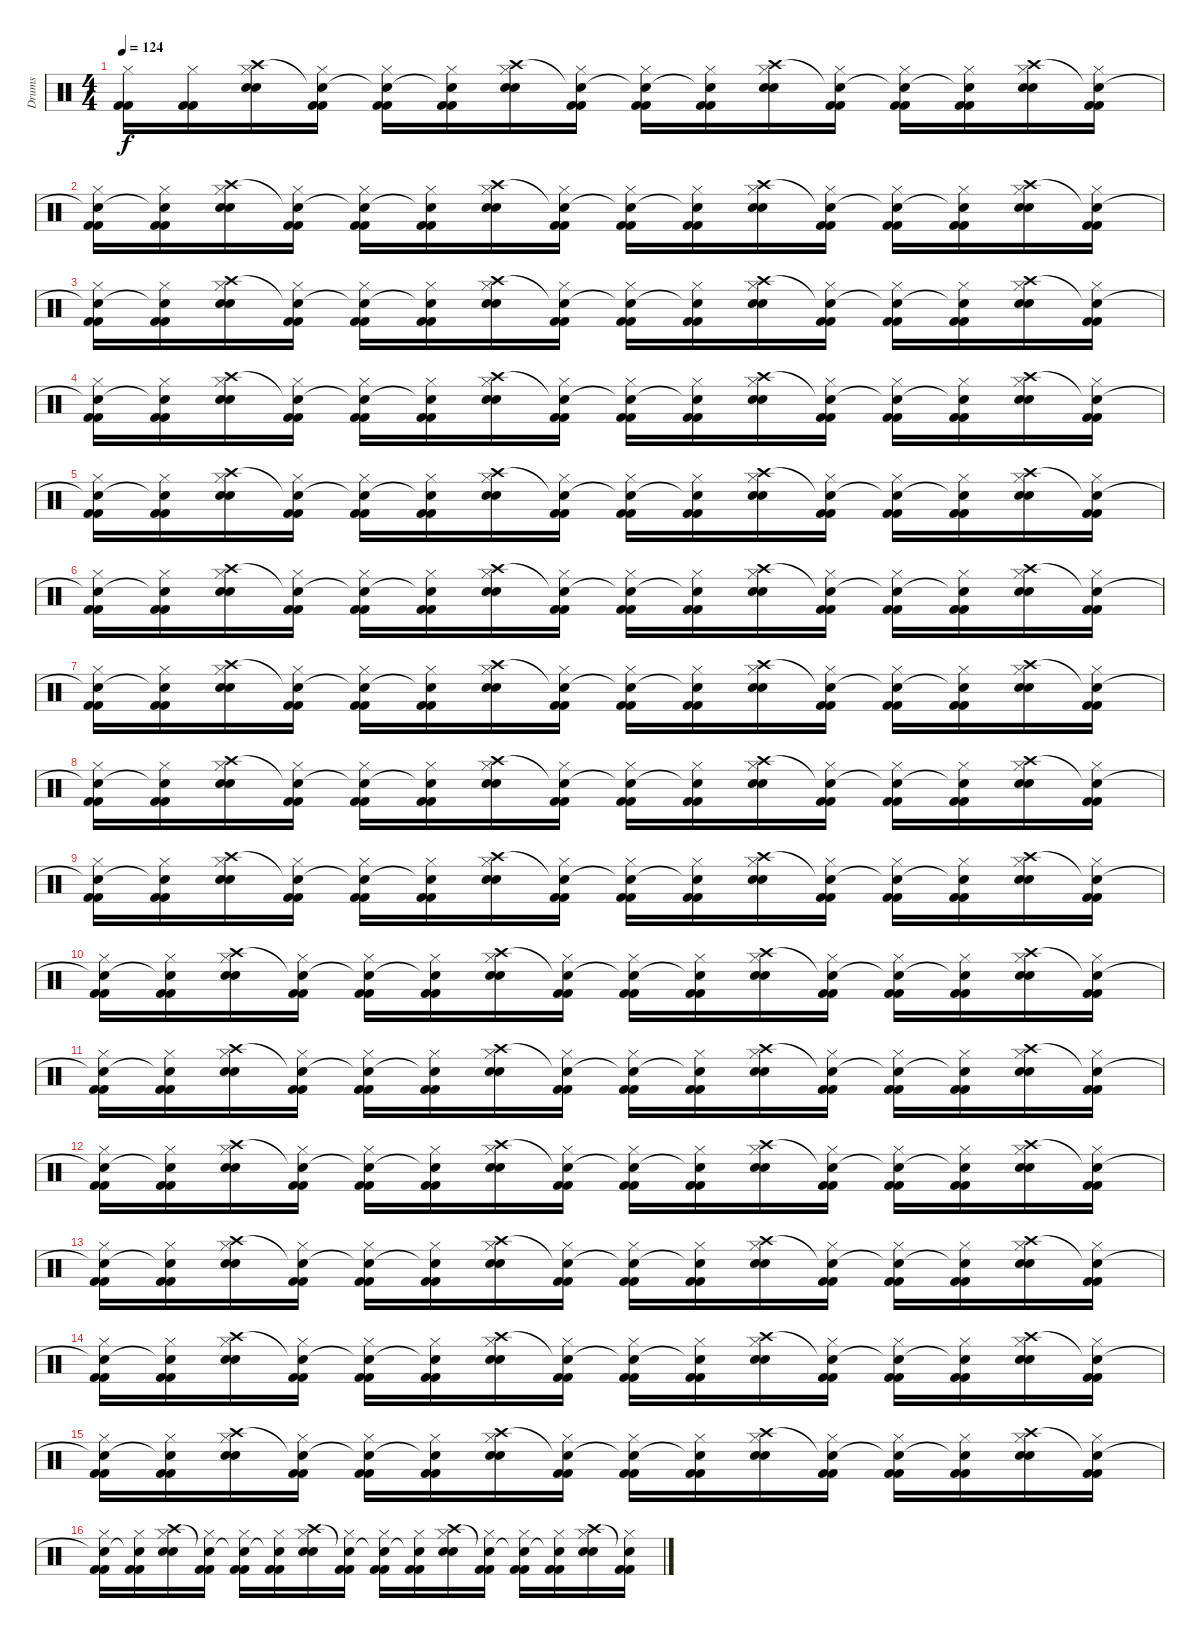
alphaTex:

\track ("Drums" "Drums") {instrument percussion}
\staff {score}
\articulation defaults
\ts (4 4)
\tempo 124
\clef neutral
\ks c
("Hi-Hat (closed)" "Kick (hit) 2" "Kick (hit) 2").16{dy f} ("Hi-Hat (closed)" "Kick (hit) 2" "Kick (hit) 2").16 ("Crash high (hit)" "Hi-Hat (closed)" "Snare (hit) 2" "Snare (hit) 2").16 ("Snare (hit)"{t} "Hi-Hat (closed)" "Kick (hit) 2" "Kick (hit) 2").16 ("Snare (hit)"{t} "Hi-Hat (closed)" "Kick (hit) 2" "Kick (hit) 2").16 ("Snare (hit)"{t} "Hi-Hat (closed)" "Kick (hit) 2" "Kick (hit) 2").16 ("Crash high (hit)" "Hi-Hat (closed)" "Snare (hit) 2" "Snare (hit) 2").16 ("Snare (hit)"{t} "Hi-Hat (closed)" "Kick (hit) 2" "Kick (hit) 2").16 ("Snare (hit)"{t} "Hi-Hat (closed)" "Kick (hit) 2" "Kick (hit) 2").16 ("Snare (hit)"{t} "Hi-Hat (closed)" "Kick (hit) 2" "Kick (hit) 2").16 ("Crash high (hit)" "Hi-Hat (closed)" "Snare (hit) 2" "Snare (hit) 2").16 ("Snare (hit)"{t} "Hi-Hat (closed)" "Kick (hit) 2" "Kick (hit) 2").16 ("Snare (hit)"{t} "Hi-Hat (closed)" "Kick (hit) 2" "Kick (hit) 2").16 ("Snare (hit)"{t} "Hi-Hat (closed)" "Kick (hit) 2" "Kick (hit) 2").16 ("Crash high (hit)" "Hi-Hat (closed)" "Snare (hit) 2" "Snare (hit) 2").16 ("Snare (hit)"{t} "Hi-Hat (closed)" "Kick (hit) 2" "Kick (hit) 2").16 |
("Snare (hit)"{t} "Hi-Hat (closed)" "Kick (hit) 2" "Kick (hit) 2").16 ("Snare (hit)"{t} "Hi-Hat (closed)" "Kick (hit) 2" "Kick (hit) 2").16 ("Crash high (hit)" "Hi-Hat (closed)" "Snare (hit) 2" "Snare (hit) 2").16 ("Snare (hit)"{t} "Hi-Hat (closed)" "Kick (hit) 2" "Kick (hit) 2").16 ("Snare (hit)"{t} "Hi-Hat (closed)" "Kick (hit) 2" "Kick (hit) 2").16 ("Snare (hit)"{t} "Hi-Hat (closed)" "Kick (hit) 2" "Kick (hit) 2").16 ("Crash high (hit)" "Hi-Hat (closed)" "Snare (hit) 2" "Snare (hit) 2").16 ("Snare (hit)"{t} "Hi-Hat (closed)" "Kick (hit) 2" "Kick (hit) 2").16 ("Snare (hit)"{t} "Hi-Hat (closed)" "Kick (hit) 2" "Kick (hit) 2").16 ("Snare (hit)"{t} "Hi-Hat (closed)" "Kick (hit) 2" "Kick (hit) 2").16 ("Crash high (hit)" "Hi-Hat (closed)" "Snare (hit) 2" "Snare (hit) 2").16 ("Snare (hit)"{t} "Hi-Hat (closed)" "Kick (hit) 2" "Kick (hit) 2").16 ("Snare (hit)"{t} "Hi-Hat (closed)" "Kick (hit) 2" "Kick (hit) 2").16 ("Snare (hit)"{t} "Hi-Hat (closed)" "Kick (hit) 2" "Kick (hit) 2").16 ("Crash high (hit)" "Hi-Hat (closed)" "Snare (hit) 2" "Snare (hit) 2").16 ("Snare (hit)"{t} "Hi-Hat (closed)" "Kick (hit) 2" "Kick (hit) 2").16 |
("Snare (hit)"{t} "Hi-Hat (closed)" "Kick (hit) 2" "Kick (hit) 2").16 ("Snare (hit)"{t} "Hi-Hat (closed)" "Kick (hit) 2" "Kick (hit) 2").16 ("Crash high (hit)" "Hi-Hat (closed)" "Snare (hit) 2" "Snare (hit) 2").16 ("Snare (hit)"{t} "Hi-Hat (closed)" "Kick (hit) 2" "Kick (hit) 2").16 ("Snare (hit)"{t} "Hi-Hat (closed)" "Kick (hit) 2" "Kick (hit) 2").16 ("Snare (hit)"{t} "Hi-Hat (closed)" "Kick (hit) 2" "Kick (hit) 2").16 ("Crash high (hit)" "Hi-Hat (closed)" "Snare (hit) 2" "Snare (hit) 2").16 ("Snare (hit)"{t} "Hi-Hat (closed)" "Kick (hit) 2" "Kick (hit) 2").16 ("Snare (hit)"{t} "Hi-Hat (closed)" "Kick (hit) 2" "Kick (hit) 2").16 ("Snare (hit)"{t} "Hi-Hat (closed)" "Kick (hit) 2" "Kick (hit) 2").16 ("Crash high (hit)" "Hi-Hat (closed)" "Snare (hit) 2" "Snare (hit) 2").16 ("Snare (hit)"{t} "Hi-Hat (closed)" "Kick (hit) 2" "Kick (hit) 2").16 ("Snare (hit)"{t} "Hi-Hat (closed)" "Kick (hit) 2" "Kick (hit) 2").16 ("Snare (hit)"{t} "Hi-Hat (closed)" "Kick (hit) 2" "Kick (hit) 2").16 ("Crash high (hit)" "Hi-Hat (closed)" "Snare (hit) 2" "Snare (hit) 2").16 ("Snare (hit)"{t} "Hi-Hat (closed)" "Kick (hit) 2" "Kick (hit) 2").16 |
("Snare (hit)"{t} "Hi-Hat (closed)" "Kick (hit) 2" "Kick (hit) 2").16 ("Snare (hit)"{t} "Hi-Hat (closed)" "Kick (hit) 2" "Kick (hit) 2").16 ("Crash high (hit)" "Hi-Hat (closed)" "Snare (hit) 2" "Snare (hit) 2").16 ("Snare (hit)"{t} "Hi-Hat (closed)" "Kick (hit) 2" "Kick (hit) 2").16 ("Snare (hit)"{t} "Hi-Hat (closed)" "Kick (hit) 2" "Kick (hit) 2").16 ("Snare (hit)"{t} "Hi-Hat (closed)" "Kick (hit) 2" "Kick (hit) 2").16 ("Crash high (hit)" "Hi-Hat (closed)" "Snare (hit) 2" "Snare (hit) 2").16 ("Snare (hit)"{t} "Hi-Hat (closed)" "Kick (hit) 2" "Kick (hit) 2").16 ("Snare (hit)"{t} "Hi-Hat (closed)" "Kick (hit) 2" "Kick (hit) 2").16 ("Snare (hit)"{t} "Hi-Hat (closed)" "Kick (hit) 2" "Kick (hit) 2").16 ("Crash high (hit)" "Hi-Hat (closed)" "Snare (hit) 2" "Snare (hit) 2").16 ("Snare (hit)"{t} "Hi-Hat (closed)" "Kick (hit) 2" "Kick (hit) 2").16 ("Snare (hit)"{t} "Hi-Hat (closed)" "Kick (hit) 2" "Kick (hit) 2").16 ("Snare (hit)"{t} "Hi-Hat (closed)" "Kick (hit) 2" "Kick (hit) 2").16 ("Crash high (hit)" "Hi-Hat (closed)" "Snare (hit) 2" "Snare (hit) 2").16 ("Snare (hit)"{t} "Hi-Hat (closed)" "Kick (hit) 2" "Kick (hit) 2").16 |
("Snare (hit)"{t} "Hi-Hat (closed)" "Kick (hit) 2" "Kick (hit) 2").16 ("Snare (hit)"{t} "Hi-Hat (closed)" "Kick (hit) 2" "Kick (hit) 2").16 ("Crash high (hit)" "Hi-Hat (closed)" "Snare (hit) 2" "Snare (hit) 2").16 ("Snare (hit)"{t} "Hi-Hat (closed)" "Kick (hit) 2" "Kick (hit) 2").16 ("Snare (hit)"{t} "Hi-Hat (closed)" "Kick (hit) 2" "Kick (hit) 2").16 ("Snare (hit)"{t} "Hi-Hat (closed)" "Kick (hit) 2" "Kick (hit) 2").16 ("Crash high (hit)" "Hi-Hat (closed)" "Snare (hit) 2" "Snare (hit) 2").16 ("Snare (hit)"{t} "Hi-Hat (closed)" "Kick (hit) 2" "Kick (hit) 2").16 ("Snare (hit)"{t} "Hi-Hat (closed)" "Kick (hit) 2" "Kick (hit) 2").16 ("Snare (hit)"{t} "Hi-Hat (closed)" "Kick (hit) 2" "Kick (hit) 2").16 ("Crash high (hit)" "Hi-Hat (closed)" "Snare (hit) 2" "Snare (hit) 2").16 ("Snare (hit)"{t} "Hi-Hat (closed)" "Kick (hit) 2" "Kick (hit) 2").16 ("Snare (hit)"{t} "Hi-Hat (closed)" "Kick (hit) 2" "Kick (hit) 2").16 ("Snare (hit)"{t} "Hi-Hat (closed)" "Kick (hit) 2" "Kick (hit) 2").16 ("Crash high (hit)" "Hi-Hat (closed)" "Snare (hit) 2" "Snare (hit) 2").16 ("Snare (hit)"{t} "Hi-Hat (closed)" "Kick (hit) 2" "Kick (hit) 2").16 |
("Snare (hit)"{t} "Hi-Hat (closed)" "Kick (hit) 2" "Kick (hit) 2").16 ("Snare (hit)"{t} "Hi-Hat (closed)" "Kick (hit) 2" "Kick (hit) 2").16 ("Crash high (hit)" "Hi-Hat (closed)" "Snare (hit) 2" "Snare (hit) 2").16 ("Snare (hit)"{t} "Hi-Hat (closed)" "Kick (hit) 2" "Kick (hit) 2").16 ("Snare (hit)"{t} "Hi-Hat (closed)" "Kick (hit) 2" "Kick (hit) 2").16 ("Snare (hit)"{t} "Hi-Hat (closed)" "Kick (hit) 2" "Kick (hit) 2").16 ("Crash high (hit)" "Hi-Hat (closed)" "Snare (hit) 2" "Snare (hit) 2").16 ("Snare (hit)"{t} "Hi-Hat (closed)" "Kick (hit) 2" "Kick (hit) 2").16 ("Snare (hit)"{t} "Hi-Hat (closed)" "Kick (hit) 2" "Kick (hit) 2").16 ("Snare (hit)"{t} "Hi-Hat (closed)" "Kick (hit) 2" "Kick (hit) 2").16 ("Crash high (hit)" "Hi-Hat (closed)" "Snare (hit) 2" "Snare (hit) 2").16 ("Snare (hit)"{t} "Hi-Hat (closed)" "Kick (hit) 2" "Kick (hit) 2").16 ("Snare (hit)"{t} "Hi-Hat (closed)" "Kick (hit) 2" "Kick (hit) 2").16 ("Snare (hit)"{t} "Hi-Hat (closed)" "Kick (hit) 2" "Kick (hit) 2").16 ("Crash high (hit)" "Hi-Hat (closed)" "Snare (hit) 2" "Snare (hit) 2").16 ("Snare (hit)"{t} "Hi-Hat (closed)" "Kick (hit) 2" "Kick (hit) 2").16 |
("Snare (hit)"{t} "Hi-Hat (closed)" "Kick (hit) 2" "Kick (hit) 2").16 ("Snare (hit)"{t} "Hi-Hat (closed)" "Kick (hit) 2" "Kick (hit) 2").16 ("Crash high (hit)" "Hi-Hat (closed)" "Snare (hit) 2" "Snare (hit) 2").16 ("Snare (hit)"{t} "Hi-Hat (closed)" "Kick (hit) 2" "Kick (hit) 2").16 ("Snare (hit)"{t} "Hi-Hat (closed)" "Kick (hit) 2" "Kick (hit) 2").16 ("Snare (hit)"{t} "Hi-Hat (closed)" "Kick (hit) 2" "Kick (hit) 2").16 ("Crash high (hit)" "Hi-Hat (closed)" "Snare (hit) 2" "Snare (hit) 2").16 ("Snare (hit)"{t} "Hi-Hat (closed)" "Kick (hit) 2" "Kick (hit) 2").16 ("Snare (hit)"{t} "Hi-Hat (closed)" "Kick (hit) 2" "Kick (hit) 2").16 ("Snare (hit)"{t} "Hi-Hat (closed)" "Kick (hit) 2" "Kick (hit) 2").16 ("Crash high (hit)" "Hi-Hat (closed)" "Snare (hit) 2" "Snare (hit) 2").16 ("Snare (hit)"{t} "Hi-Hat (closed)" "Kick (hit) 2" "Kick (hit) 2").16 ("Snare (hit)"{t} "Hi-Hat (closed)" "Kick (hit) 2" "Kick (hit) 2").16 ("Snare (hit)"{t} "Hi-Hat (closed)" "Kick (hit) 2" "Kick (hit) 2").16 ("Crash high (hit)" "Hi-Hat (closed)" "Snare (hit) 2" "Snare (hit) 2").16 ("Snare (hit)"{t} "Hi-Hat (closed)" "Kick (hit) 2" "Kick (hit) 2").16 |
("Snare (hit)"{t} "Hi-Hat (closed)" "Kick (hit) 2" "Kick (hit) 2").16 ("Snare (hit)"{t} "Hi-Hat (closed)" "Kick (hit) 2" "Kick (hit) 2").16 ("Crash high (hit)" "Hi-Hat (closed)" "Snare (hit) 2" "Snare (hit) 2").16 ("Snare (hit)"{t} "Hi-Hat (closed)" "Kick (hit) 2" "Kick (hit) 2").16 ("Snare (hit)"{t} "Hi-Hat (closed)" "Kick (hit) 2" "Kick (hit) 2").16 ("Snare (hit)"{t} "Hi-Hat (closed)" "Kick (hit) 2" "Kick (hit) 2").16 ("Crash high (hit)" "Hi-Hat (closed)" "Snare (hit) 2" "Snare (hit) 2").16 ("Snare (hit)"{t} "Hi-Hat (closed)" "Kick (hit) 2" "Kick (hit) 2").16 ("Snare (hit)"{t} "Hi-Hat (closed)" "Kick (hit) 2" "Kick (hit) 2").16 ("Snare (hit)"{t} "Hi-Hat (closed)" "Kick (hit) 2" "Kick (hit) 2").16 ("Crash high (hit)" "Hi-Hat (closed)" "Snare (hit) 2" "Snare (hit) 2").16 ("Snare (hit)"{t} "Hi-Hat (closed)" "Kick (hit) 2" "Kick (hit) 2").16 ("Snare (hit)"{t} "Hi-Hat (closed)" "Kick (hit) 2" "Kick (hit) 2").16 ("Snare (hit)"{t} "Hi-Hat (closed)" "Kick (hit) 2" "Kick (hit) 2").16 ("Crash high (hit)" "Hi-Hat (closed)" "Snare (hit) 2" "Snare (hit) 2").16 ("Snare (hit)"{t} "Hi-Hat (closed)" "Kick (hit) 2" "Kick (hit) 2").16 |
("Snare (hit)"{t} "Hi-Hat (closed)" "Kick (hit) 2" "Kick (hit) 2").16 ("Snare (hit)"{t} "Hi-Hat (closed)" "Kick (hit) 2" "Kick (hit) 2").16 ("Crash high (hit)" "Hi-Hat (closed)" "Snare (hit) 2" "Snare (hit) 2").16 ("Snare (hit)"{t} "Hi-Hat (closed)" "Kick (hit) 2" "Kick (hit) 2").16 ("Snare (hit)"{t} "Hi-Hat (closed)" "Kick (hit) 2" "Kick (hit) 2").16 ("Snare (hit)"{t} "Hi-Hat (closed)" "Kick (hit) 2" "Kick (hit) 2").16 ("Crash high (hit)" "Hi-Hat (closed)" "Snare (hit) 2" "Snare (hit) 2").16 ("Snare (hit)"{t} "Hi-Hat (closed)" "Kick (hit) 2" "Kick (hit) 2").16 ("Snare (hit)"{t} "Hi-Hat (closed)" "Kick (hit) 2" "Kick (hit) 2").16 ("Snare (hit)"{t} "Hi-Hat (closed)" "Kick (hit) 2" "Kick (hit) 2").16 ("Crash high (hit)" "Hi-Hat (closed)" "Snare (hit) 2" "Snare (hit) 2").16 ("Snare (hit)"{t} "Hi-Hat (closed)" "Kick (hit) 2" "Kick (hit) 2").16 ("Snare (hit)"{t} "Hi-Hat (closed)" "Kick (hit) 2" "Kick (hit) 2").16 ("Snare (hit)"{t} "Hi-Hat (closed)" "Kick (hit) 2" "Kick (hit) 2").16 ("Crash high (hit)" "Hi-Hat (closed)" "Snare (hit) 2" "Snare (hit) 2").16 ("Snare (hit)"{t} "Hi-Hat (closed)" "Kick (hit) 2" "Kick (hit) 2").16 |
("Snare (hit)"{t} "Hi-Hat (closed)" "Kick (hit) 2" "Kick (hit) 2").16 ("Snare (hit)"{t} "Hi-Hat (closed)" "Kick (hit) 2" "Kick (hit) 2").16 ("Crash high (hit)" "Hi-Hat (closed)" "Snare (hit) 2" "Snare (hit) 2").16 ("Snare (hit)"{t} "Hi-Hat (closed)" "Kick (hit) 2" "Kick (hit) 2").16 ("Snare (hit)"{t} "Hi-Hat (closed)" "Kick (hit) 2" "Kick (hit) 2").16 ("Snare (hit)"{t} "Hi-Hat (closed)" "Kick (hit) 2" "Kick (hit) 2").16 ("Crash high (hit)" "Hi-Hat (closed)" "Snare (hit) 2" "Snare (hit) 2").16 ("Snare (hit)"{t} "Hi-Hat (closed)" "Kick (hit) 2" "Kick (hit) 2").16 ("Snare (hit)"{t} "Hi-Hat (closed)" "Kick (hit) 2" "Kick (hit) 2").16 ("Snare (hit)"{t} "Hi-Hat (closed)" "Kick (hit) 2" "Kick (hit) 2").16 ("Crash high (hit)" "Hi-Hat (closed)" "Snare (hit) 2" "Snare (hit) 2").16 ("Snare (hit)"{t} "Hi-Hat (closed)" "Kick (hit) 2" "Kick (hit) 2").16 ("Snare (hit)"{t} "Hi-Hat (closed)" "Kick (hit) 2" "Kick (hit) 2").16 ("Snare (hit)"{t} "Hi-Hat (closed)" "Kick (hit) 2" "Kick (hit) 2").16 ("Crash high (hit)" "Hi-Hat (closed)" "Snare (hit) 2" "Snare (hit) 2").16 ("Snare (hit)"{t} "Hi-Hat (closed)" "Kick (hit) 2" "Kick (hit) 2").16 |
("Snare (hit)"{t} "Hi-Hat (closed)" "Kick (hit) 2" "Kick (hit) 2").16 ("Snare (hit)"{t} "Hi-Hat (closed)" "Kick (hit) 2" "Kick (hit) 2").16 ("Crash high (hit)" "Hi-Hat (closed)" "Snare (hit) 2" "Snare (hit) 2").16 ("Snare (hit)"{t} "Hi-Hat (closed)" "Kick (hit) 2" "Kick (hit) 2").16 ("Snare (hit)"{t} "Hi-Hat (closed)" "Kick (hit) 2" "Kick (hit) 2").16 ("Snare (hit)"{t} "Hi-Hat (closed)" "Kick (hit) 2" "Kick (hit) 2").16 ("Crash high (hit)" "Hi-Hat (closed)" "Snare (hit) 2" "Snare (hit) 2").16 ("Snare (hit)"{t} "Hi-Hat (closed)" "Kick (hit) 2" "Kick (hit) 2").16 ("Snare (hit)"{t} "Hi-Hat (closed)" "Kick (hit) 2" "Kick (hit) 2").16 ("Snare (hit)"{t} "Hi-Hat (closed)" "Kick (hit) 2" "Kick (hit) 2").16 ("Crash high (hit)" "Hi-Hat (closed)" "Snare (hit) 2" "Snare (hit) 2").16 ("Snare (hit)"{t} "Hi-Hat (closed)" "Kick (hit) 2" "Kick (hit) 2").16 ("Snare (hit)"{t} "Hi-Hat (closed)" "Kick (hit) 2" "Kick (hit) 2").16 ("Snare (hit)"{t} "Hi-Hat (closed)" "Kick (hit) 2" "Kick (hit) 2").16 ("Crash high (hit)" "Hi-Hat (closed)" "Snare (hit) 2" "Snare (hit) 2").16 ("Snare (hit)"{t} "Hi-Hat (closed)" "Kick (hit) 2" "Kick (hit) 2").16 |
("Snare (hit)"{t} "Hi-Hat (closed)" "Kick (hit) 2" "Kick (hit) 2").16 ("Snare (hit)"{t} "Hi-Hat (closed)" "Kick (hit) 2" "Kick (hit) 2").16 ("Crash high (hit)" "Hi-Hat (closed)" "Snare (hit) 2" "Snare (hit) 2").16 ("Snare (hit)"{t} "Hi-Hat (closed)" "Kick (hit) 2" "Kick (hit) 2").16 ("Snare (hit)"{t} "Hi-Hat (closed)" "Kick (hit) 2" "Kick (hit) 2").16 ("Snare (hit)"{t} "Hi-Hat (closed)" "Kick (hit) 2" "Kick (hit) 2").16 ("Crash high (hit)" "Hi-Hat (closed)" "Snare (hit) 2" "Snare (hit) 2").16 ("Snare (hit)"{t} "Hi-Hat (closed)" "Kick (hit) 2" "Kick (hit) 2").16 ("Snare (hit)"{t} "Hi-Hat (closed)" "Kick (hit) 2" "Kick (hit) 2").16 ("Snare (hit)"{t} "Hi-Hat (closed)" "Kick (hit) 2" "Kick (hit) 2").16 ("Crash high (hit)" "Hi-Hat (closed)" "Snare (hit) 2" "Snare (hit) 2").16 ("Snare (hit)"{t} "Hi-Hat (closed)" "Kick (hit) 2" "Kick (hit) 2").16 ("Snare (hit)"{t} "Hi-Hat (closed)" "Kick (hit) 2" "Kick (hit) 2").16 ("Snare (hit)"{t} "Hi-Hat (closed)" "Kick (hit) 2" "Kick (hit) 2").16 ("Crash high (hit)" "Hi-Hat (closed)" "Snare (hit) 2" "Snare (hit) 2").16 ("Snare (hit)"{t} "Hi-Hat (closed)" "Kick (hit) 2" "Kick (hit) 2").16 |
("Snare (hit)"{t} "Hi-Hat (closed)" "Kick (hit) 2" "Kick (hit) 2").16 ("Snare (hit)"{t} "Hi-Hat (closed)" "Kick (hit) 2" "Kick (hit) 2").16 ("Crash high (hit)" "Hi-Hat (closed)" "Snare (hit) 2" "Snare (hit) 2").16 ("Snare (hit)"{t} "Hi-Hat (closed)" "Kick (hit) 2" "Kick (hit) 2").16 ("Snare (hit)"{t} "Hi-Hat (closed)" "Kick (hit) 2" "Kick (hit) 2").16 ("Snare (hit)"{t} "Hi-Hat (closed)" "Kick (hit) 2" "Kick (hit) 2").16 ("Crash high (hit)" "Hi-Hat (closed)" "Snare (hit) 2" "Snare (hit) 2").16 ("Snare (hit)"{t} "Hi-Hat (closed)" "Kick (hit) 2" "Kick (hit) 2").16 ("Snare (hit)"{t} "Hi-Hat (closed)" "Kick (hit) 2" "Kick (hit) 2").16 ("Snare (hit)"{t} "Hi-Hat (closed)" "Kick (hit) 2" "Kick (hit) 2").16 ("Crash high (hit)" "Hi-Hat (closed)" "Snare (hit) 2" "Snare (hit) 2").16 ("Snare (hit)"{t} "Hi-Hat (closed)" "Kick (hit) 2" "Kick (hit) 2").16 ("Snare (hit)"{t} "Hi-Hat (closed)" "Kick (hit) 2" "Kick (hit) 2").16 ("Snare (hit)"{t} "Hi-Hat (closed)" "Kick (hit) 2" "Kick (hit) 2").16 ("Crash high (hit)" "Hi-Hat (closed)" "Snare (hit) 2" "Snare (hit) 2").16 ("Snare (hit)"{t} "Hi-Hat (closed)" "Kick (hit) 2" "Kick (hit) 2").16 |
("Snare (hit)"{t} "Hi-Hat (closed)" "Kick (hit) 2" "Kick (hit) 2").16 ("Snare (hit)"{t} "Hi-Hat (closed)" "Kick (hit) 2" "Kick (hit) 2").16 ("Crash high (hit)" "Hi-Hat (closed)" "Snare (hit) 2" "Snare (hit) 2").16 ("Snare (hit)"{t} "Hi-Hat (closed)" "Kick (hit) 2" "Kick (hit) 2").16 ("Snare (hit)"{t} "Hi-Hat (closed)" "Kick (hit) 2" "Kick (hit) 2").16 ("Snare (hit)"{t} "Hi-Hat (closed)" "Kick (hit) 2" "Kick (hit) 2").16 ("Crash high (hit)" "Hi-Hat (closed)" "Snare (hit) 2" "Snare (hit) 2").16 ("Snare (hit)"{t} "Hi-Hat (closed)" "Kick (hit) 2" "Kick (hit) 2").16 ("Snare (hit)"{t} "Hi-Hat (closed)" "Kick (hit) 2" "Kick (hit) 2").16 ("Snare (hit)"{t} "Hi-Hat (closed)" "Kick (hit) 2" "Kick (hit) 2").16 ("Crash high (hit)" "Hi-Hat (closed)" "Snare (hit) 2" "Snare (hit) 2").16 ("Snare (hit)"{t} "Hi-Hat (closed)" "Kick (hit) 2" "Kick (hit) 2").16 ("Snare (hit)"{t} "Hi-Hat (closed)" "Kick (hit) 2" "Kick (hit) 2").16 ("Snare (hit)"{t} "Hi-Hat (closed)" "Kick (hit) 2" "Kick (hit) 2").16 ("Crash high (hit)" "Hi-Hat (closed)" "Snare (hit) 2" "Snare (hit) 2").16 ("Snare (hit)"{t} "Hi-Hat (closed)" "Kick (hit) 2" "Kick (hit) 2").16 |
("Snare (hit)"{t} "Hi-Hat (closed)" "Kick (hit) 2" "Kick (hit) 2").16 ("Snare (hit)"{t} "Hi-Hat (closed)" "Kick (hit) 2" "Kick (hit) 2").16 ("Crash high (hit)" "Hi-Hat (closed)" "Snare (hit) 2" "Snare (hit) 2").16 ("Snare (hit)"{t} "Hi-Hat (closed)" "Kick (hit) 2" "Kick (hit) 2").16 ("Snare (hit)"{t} "Hi-Hat (closed)" "Kick (hit) 2" "Kick (hit) 2").16 ("Snare (hit)"{t} "Hi-Hat (closed)" "Kick (hit) 2" "Kick (hit) 2").16 ("Crash high (hit)" "Hi-Hat (closed)" "Snare (hit) 2" "Snare (hit) 2").16 ("Snare (hit)"{t} "Hi-Hat (closed)" "Kick (hit) 2" "Kick (hit) 2").16 ("Snare (hit)"{t} "Hi-Hat (closed)" "Kick (hit) 2" "Kick (hit) 2").16 ("Snare (hit)"{t} "Hi-Hat (closed)" "Kick (hit) 2" "Kick (hit) 2").16 ("Crash high (hit)" "Hi-Hat (closed)" "Snare (hit) 2" "Snare (hit) 2").16 ("Snare (hit)"{t} "Hi-Hat (closed)" "Kick (hit) 2" "Kick (hit) 2").16 ("Snare (hit)"{t} "Hi-Hat (closed)" "Kick (hit) 2" "Kick (hit) 2").16 ("Snare (hit)"{t} "Hi-Hat (closed)" "Kick (hit) 2" "Kick (hit) 2").16 ("Crash high (hit)" "Hi-Hat (closed)" "Snare (hit) 2" "Snare (hit) 2").16 ("Snare (hit)"{t} "Hi-Hat (closed)" "Kick (hit) 2" "Kick (hit) 2").16 |
("Snare (hit)"{t} "Hi-Hat (closed)" "Kick (hit) 2" "Kick (hit) 2").16 ("Snare (hit)"{t} "Hi-Hat (closed)" "Kick (hit) 2" "Kick (hit) 2").16 ("Crash high (hit)" "Hi-Hat (closed)" "Snare (hit) 2" "Snare (hit) 2").16 ("Snare (hit)"{t} "Hi-Hat (closed)" "Kick (hit) 2" "Kick (hit) 2").16 ("Snare (hit)"{t} "Hi-Hat (closed)" "Kick (hit) 2" "Kick (hit) 2").16 ("Snare (hit)"{t} "Hi-Hat (closed)" "Kick (hit) 2" "Kick (hit) 2").16 ("Crash high (hit)" "Hi-Hat (closed)" "Snare (hit) 2" "Snare (hit) 2").16 ("Snare (hit)"{t} "Hi-Hat (closed)" "Kick (hit) 2" "Kick (hit) 2").16 ("Snare (hit)"{t} "Hi-Hat (closed)" "Kick (hit) 2" "Kick (hit) 2").16 ("Snare (hit)"{t} "Hi-Hat (closed)" "Kick (hit) 2" "Kick (hit) 2").16 ("Crash high (hit)" "Hi-Hat (closed)" "Snare (hit) 2" "Snare (hit) 2").16 ("Snare (hit)"{t} "Hi-Hat (closed)" "Kick (hit) 2" "Kick (hit) 2").16 ("Snare (hit)"{t} "Hi-Hat (closed)" "Kick (hit) 2" "Kick (hit) 2").16 ("Snare (hit)"{t} "Hi-Hat (closed)" "Kick (hit) 2" "Kick (hit) 2").16 ("Crash high (hit)" "Hi-Hat (closed)" "Snare (hit) 2" "Snare (hit) 2").16 ("Snare (hit)"{t} "Hi-Hat (closed)" "Kick (hit) 2" "Kick (hit) 2").16
